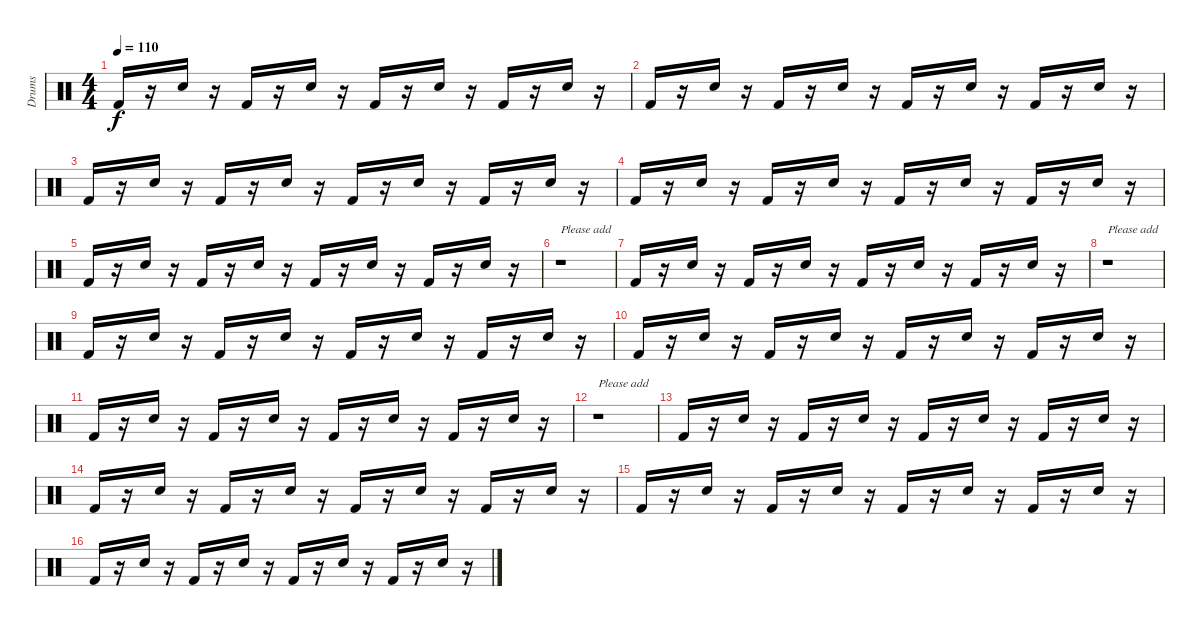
\track ("Drums" "Drums") {instrument percussion}
\staff {score}
\articulation defaults
\ts (4 4)
\tempo 110
\clef neutral
\ks c "Kick (hit) 2".16{dy f}
r.16 "Snare (hit) 2".16 r.16 "Kick (hit) 2".16 r.16 "Snare (hit) 2".16 r.16 "Kick (hit) 2".16 r.16 "Snare (hit) 2".16 r.16 "Kick (hit) 2".16 r.16 "Snare (hit) 2".16 r.16 |
"Kick (hit) 2".16 r.16 "Snare (hit) 2".16 r.16 "Kick (hit) 2".16 r.16 "Snare (hit) 2".16 r.16 "Kick (hit) 2".16 r.16 "Snare (hit) 2".16 r.16 "Kick (hit) 2".16 r.16 "Snare (hit) 2".16 r.16 |
"Kick (hit) 2".16 r.16 "Snare (hit) 2".16 r.16 "Kick (hit) 2".16 r.16 "Snare (hit) 2".16 r.16 "Kick (hit) 2".16 r.16 "Snare (hit) 2".16 r.16 "Kick (hit) 2".16 r.16 "Snare (hit) 2".16 r.16 |
"Kick (hit) 2".16 r.16 "Snare (hit) 2".16 r.16 "Kick (hit) 2".16 r.16 "Snare (hit) 2".16 r.16 "Kick (hit) 2".16 r.16 "Snare (hit) 2".16 r.16 "Kick (hit) 2".16 r.16 "Snare (hit) 2".16 r.16 |
"Kick (hit) 2".16 r.16 "Snare (hit) 2".16 r.16 "Kick (hit) 2".16 r.16 "Snare (hit) 2".16 r.16 "Kick (hit) 2".16 r.16 "Snare (hit) 2".16 r.16 "Kick (hit) 2".16 r.16 "Snare (hit) 2".16 r.16 |
r.1{txt "Please add"} |
"Kick (hit) 2".16 r.16 "Snare (hit) 2".16 r.16 "Kick (hit) 2".16 r.16 "Snare (hit) 2".16 r.16 "Kick (hit) 2".16 r.16 "Snare (hit) 2".16 r.16 "Kick (hit) 2".16 r.16 "Snare (hit) 2".16 r.16 |
r.1{txt "Please add"} |
"Kick (hit) 2".16 r.16 "Snare (hit) 2".16 r.16 "Kick (hit) 2".16 r.16 "Snare (hit) 2".16 r.16 "Kick (hit) 2".16 r.16 "Snare (hit) 2".16 r.16 "Kick (hit) 2".16 r.16 "Snare (hit) 2".16 r.16 |
"Kick (hit) 2".16 r.16 "Snare (hit) 2".16 r.16 "Kick (hit) 2".16 r.16 "Snare (hit) 2".16 r.16 "Kick (hit) 2".16 r.16 "Snare (hit) 2".16 r.16 "Kick (hit) 2".16 r.16 "Snare (hit) 2".16 r.16 |
"Kick (hit) 2".16 r.16 "Snare (hit) 2".16 r.16 "Kick (hit) 2".16 r.16 "Snare (hit) 2".16 r.16 "Kick (hit) 2".16 r.16 "Snare (hit) 2".16 r.16 "Kick (hit) 2".16 r.16 "Snare (hit) 2".16 r.16 |
r.1{txt "Please add"} |
"Kick (hit) 2".16 r.16 "Snare (hit) 2".16 r.16 "Kick (hit) 2".16 r.16 "Snare (hit) 2".16 r.16 "Kick (hit) 2".16 r.16 "Snare (hit) 2".16 r.16 "Kick (hit) 2".16 r.16 "Snare (hit) 2".16 r.16 |
"Kick (hit) 2".16 r.16 "Snare (hit) 2".16 r.16 "Kick (hit) 2".16 r.16 "Snare (hit) 2".16 r.16 "Kick (hit) 2".16 r.16 "Snare (hit) 2".16 r.16 "Kick (hit) 2".16 r.16 "Snare (hit) 2".16 r.16 |
"Kick (hit) 2".16 r.16 "Snare (hit) 2".16 r.16 "Kick (hit) 2".16 r.16 "Snare (hit) 2".16 r.16 "Kick (hit) 2".16 r.16 "Snare (hit) 2".16 r.16 "Kick (hit) 2".16 r.16 "Snare (hit) 2".16 r.16 |
"Kick (hit) 2".16 r.16 "Snare (hit) 2".16 r.16 "Kick (hit) 2".16 r.16 "Snare (hit) 2".16 r.16 "Kick (hit) 2".16 r.16 "Snare (hit) 2".16 r.16 "Kick (hit) 2".16 r.16 "Snare (hit) 2".16 r.16
